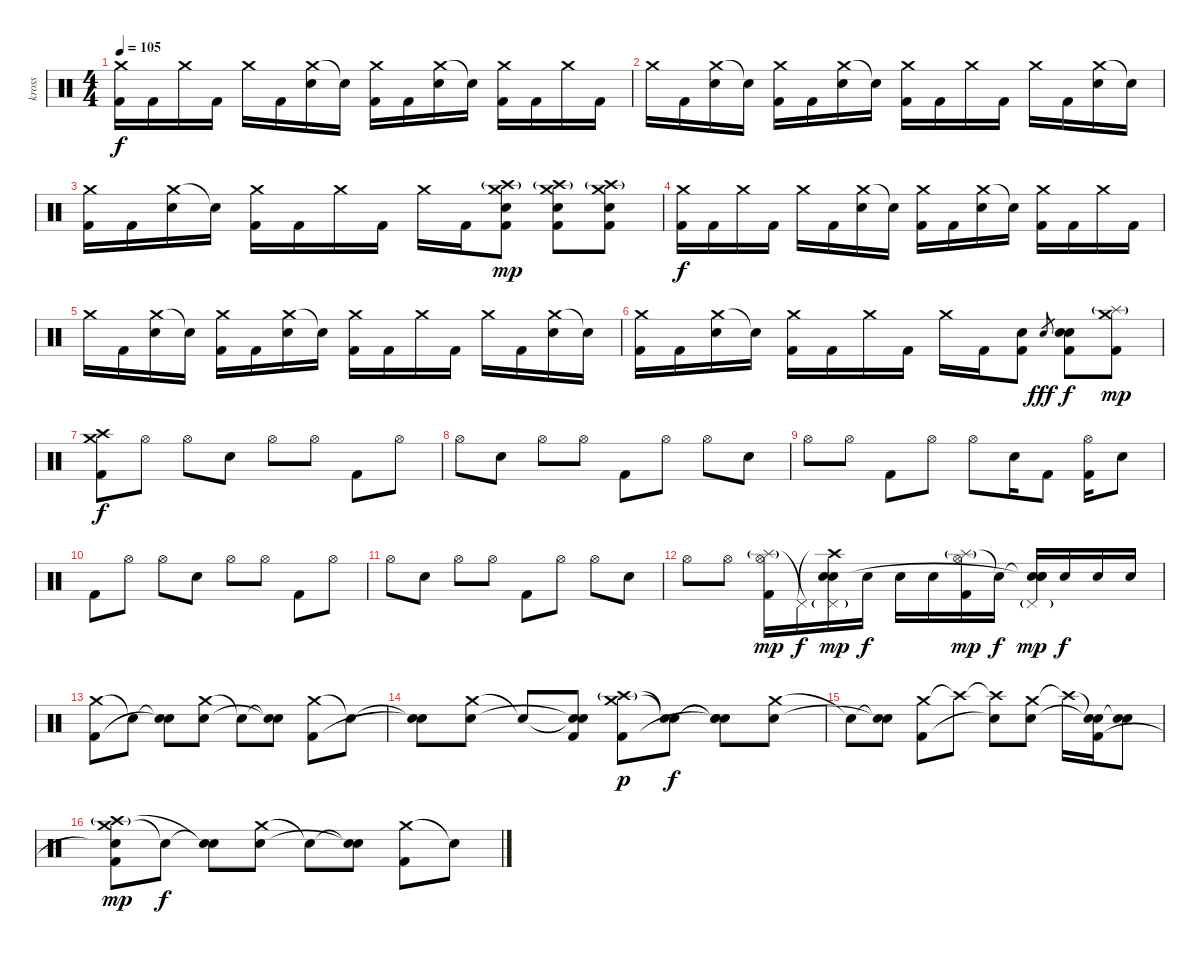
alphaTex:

\track ("kross" "kross") {instrument percussion}
\staff {score}
\articulation defaults
\ts (4 4)
\tempo 105
\clef neutral
\ks c
("Crash medium (hit)" "Kick (hit) 2").16{dy f} "Kick (hit) 2".16 "Crash medium (hit)".16 "Kick (hit) 2".16 "Crash medium (hit)".16 "Kick (hit) 2".16 ("Crash medium (hit)" "Electric Snare (hit)").16 "Snare (hit)"{t}.16 ("Crash medium (hit)" "Kick (hit) 2").16 "Kick (hit) 2".16 ("Crash medium (hit)" "Electric Snare (hit)").16 "Snare (hit)"{t}.16 ("Crash medium (hit)" "Kick (hit) 2").16 "Kick (hit) 2".16 "Crash medium (hit)".16 "Kick (hit) 2".16 |
"Crash medium (hit)".16 "Kick (hit) 2".16 ("Crash medium (hit)" "Electric Snare (hit)").16 "Snare (hit)"{t}.16 ("Crash medium (hit)" "Kick (hit) 2").16 "Kick (hit) 2".16 ("Crash medium (hit)" "Electric Snare (hit)").16 "Snare (hit)"{t}.16 ("Crash medium (hit)" "Kick (hit) 2").16 "Kick (hit) 2".16 "Crash medium (hit)".16 "Kick (hit) 2".16 "Crash medium (hit)".16 "Kick (hit) 2".16 ("Crash medium (hit)" "Electric Snare (hit)").16 "Snare (hit)"{t}.16 |
("Crash medium (hit)" "Kick (hit) 2").16 "Kick (hit) 2".16 ("Crash medium (hit)" "Electric Snare (hit)").16 "Snare (hit)"{t}.16 ("Crash medium (hit)" "Kick (hit) 2").16 "Kick (hit) 2".16 "Crash medium (hit)".16 "Kick (hit) 2".16 "Crash medium (hit)".16 "Kick (hit) 2".16 ("Crash medium (hit)" "Crash high (hit)"{g} "Electric Snare (hit)" "Kick (hit) 2").8{dy mp} ("Crash medium (hit)" "Crash high (hit)"{g} "Electric Snare (hit)" "Kick (hit) 2").8 ("Crash medium (hit)" "Crash high (hit)"{g} "Electric Snare (hit)" "Kick (hit) 2").8 |
("Crash medium (hit)" "Kick (hit) 2").16{dy f} "Kick (hit) 2".16 "Crash medium (hit)".16 "Kick (hit) 2".16 "Crash medium (hit)".16 "Kick (hit) 2".16 ("Crash medium (hit)" "Electric Snare (hit)").16 "Snare (hit)"{t}.16 ("Crash medium (hit)" "Kick (hit) 2").16 "Kick (hit) 2".16 ("Crash medium (hit)" "Electric Snare (hit)").16 "Snare (hit)"{t}.16 ("Crash medium (hit)" "Kick (hit) 2").16 "Kick (hit) 2".16 "Crash medium (hit)".16 "Kick (hit) 2".16 |
"Crash medium (hit)".16 "Kick (hit) 2".16 ("Crash medium (hit)" "Electric Snare (hit)").16 "Snare (hit)"{t}.16 ("Crash medium (hit)" "Kick (hit) 2").16 "Kick (hit) 2".16 ("Crash medium (hit)" "Electric Snare (hit)").16 "Snare (hit)"{t}.16 ("Crash medium (hit)" "Kick (hit) 2").16 "Kick (hit) 2".16 "Crash medium (hit)".16 "Kick (hit) 2".16 "Crash medium (hit)".16 "Kick (hit) 2".16 ("Crash medium (hit)" "Electric Snare (hit)").16 "Snare (hit)"{t}.16 |
("Crash medium (hit)" "Kick (hit) 2").16 "Kick (hit) 2".16 ("Crash medium (hit)" "Electric Snare (hit)").16 "Snare (hit)"{t}.16 ("Crash medium (hit)" "Kick (hit) 2").16 "Kick (hit) 2".16 "Crash medium (hit)".16 "Kick (hit) 2".16 "Crash medium (hit)".16 "Kick (hit) 2".16 ("Electric Snare (hit)" "Kick (hit) 2").8 "Electric Snare (hit)".8{gr dy fff} ("Electric Snare (hit)" "Electric Snare (hit)" "Kick (hit) 2").8{dy f} ("Crash medium (hit)" "Splash (hit)"{g} "Kick (hit) 2").8{dy mp} |
("Crash medium (hit)" "Crash high (hit)" "Kick (hit) 2").8{dy f} "Hi-Hat (open)".8 "Hi-Hat (open)".8 "Electric Snare (hit)".8 "Hi-Hat (open)".8 "Hi-Hat (open)".8 "Kick (hit) 2".8 "Hi-Hat (open)".8 |
"Hi-Hat (open)".8 "Electric Snare (hit)".8 "Hi-Hat (open)".8 "Hi-Hat (open)".8 "Kick (hit) 2".8 "Hi-Hat (open)".8 "Hi-Hat (open)".8 "Electric Snare (hit)".8 |
"Hi-Hat (open)".8 "Hi-Hat (open)".8 "Kick (hit) 2".8 "Hi-Hat (open)".8 "Hi-Hat (open)".8 "Electric Snare (hit)".16 "Kick (hit) 2".8 ("Hi-Hat (open)" "Kick (hit) 2").16 "Electric Snare (hit)".8 |
"Kick (hit) 2".8 "Hi-Hat (open)".8 "Hi-Hat (open)".8 "Electric Snare (hit)".8 "Hi-Hat (open)".8 "Hi-Hat (open)".8 "Kick (hit) 2".8 "Hi-Hat (open)".8 |
"Hi-Hat (open)".8 "Electric Snare (hit)".8 "Hi-Hat (open)".8 "Hi-Hat (open)".8 "Kick (hit) 2".8 "Hi-Hat (open)".8 "Hi-Hat (open)".8 "Electric Snare (hit)".8 |
"Hi-Hat (open)".8 "Hi-Hat (open)".8 ("Splash (hit)"{g} "Hi-Hat (open)" "Kick (hit) 2").16{dy mp} "Pedal Hi-Hat (hit)"{t}.16{dy f} ("Crash high (hit)"{t} "Pedal Hi-Hat (hit)"{g} "Electric Snare (hit)" "Snare (hit)").16{dy mp} "Electric Snare (hit)".16{dy f} "Electric Snare (hit)".16 "Electric Snare (hit)".16 ("Splash (hit)"{g} "Hi-Hat (open)" "Kick (hit) 2").16{dy mp} "Snare (hit)"{t}.16{dy f} ("Snare (hit)"{t} "Pedal Hi-Hat (hit)"{g} "Electric Snare (hit)" "Snare (hit)"{t}).16{dy mp} "Electric Snare (hit)".16{dy f} "Electric Snare (hit)".16 "Electric Snare (hit)".16 |
("Crash medium (hit)" "Kick (hit) 2").8 "Snare (hit)"{t}.8 ("Snare (hit)"{t} "Snare (hit)"{t}).8 ("Crash medium (hit)" "Electric Snare (hit)").8 "Snare (hit)"{t}.8 ("Snare (hit)"{t} "Snare (hit)"{t}).8 ("Crash medium (hit)" "Kick (hit) 2").8 "Snare (hit)"{t}.8 |
("Snare (hit)"{t} "Snare (hit)"{t}).8 ("Crash medium (hit)" "Electric Snare (hit)").8 "Snare (hit)"{t}.8 ("Snare (hit)"{t} "Snare (hit)"{t} "Kick (hit) 2").8 ("Crash medium (hit)" "Crash high (hit)"{g} "Kick (hit) 2").8{dy p} ("Snare (hit)"{t} "Snare (hit)"{t}).8{dy f} ("Snare (hit)"{t} "Snare (hit)"{t} "Snare (hit)"{t}).8 ("Crash medium (hit)" "Electric Snare (hit)").8 |
"Snare (hit)"{t}.8 ("Snare (hit)"{t} "Snare (hit)"{t}).8 ("Crash medium (hit)" "Kick (hit) 2").8 "Crash high (hit)"{t}.8 ("Crash high (hit)"{t} "Snare (hit)"{t}).8 ("Crash medium (hit)" "Electric Snare (hit)").8 "Crash high (hit)"{t}.16 ("Snare (hit)"{t} "Electric Snare (hit)"{t} "Kick (hit) 2").16 ("Electric Snare (hit)" "Snare (hit)"{t}).8 |
("Crash medium (hit)" "Crash high (hit)"{g} "Snare (hit)"{t} "Kick (hit) 2").8{dy mp} "Snare (hit)"{t}.8{dy f} ("Snare (hit)"{t} "Snare (hit)"{t}).8 ("Crash medium (hit)" "Electric Snare (hit)").8 "Snare (hit)"{t}.8 ("Snare (hit)"{t} "Snare (hit)"{t}).8 ("Crash medium (hit)" "Kick (hit) 2").8 "Snare (hit)"{t}.8
